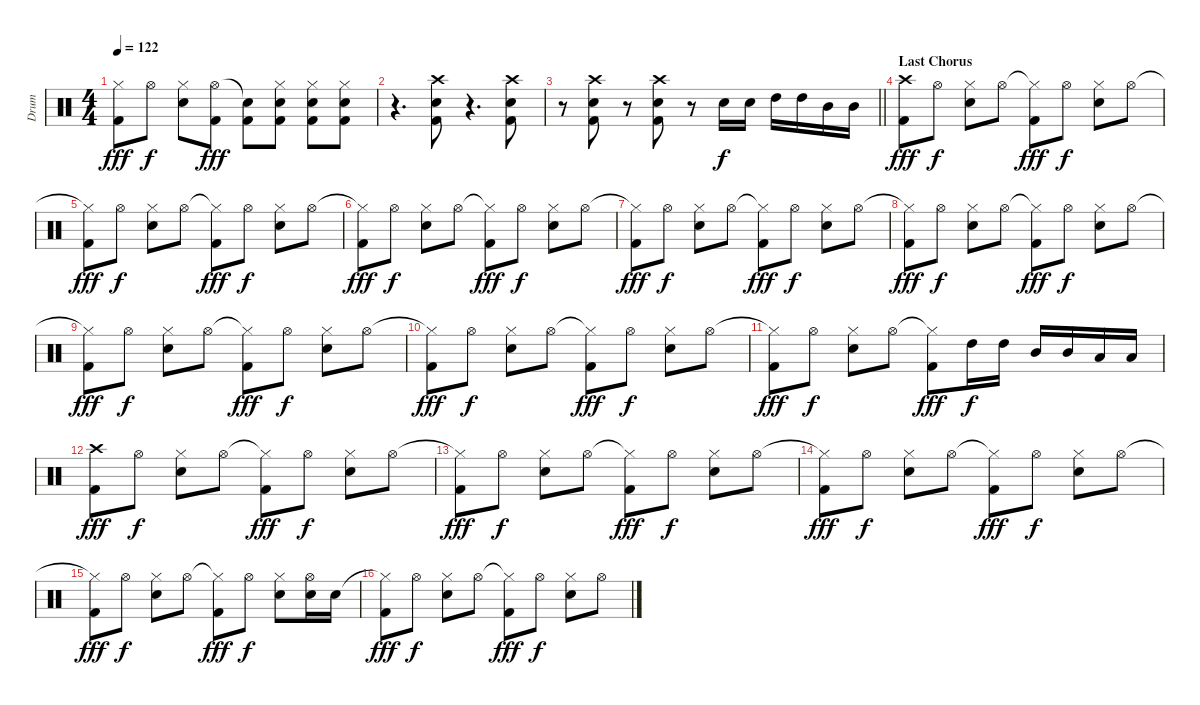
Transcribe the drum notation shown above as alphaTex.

\track ("Drum" "Drum") {instrument percussion}
\staff {score}
\articulation defaults
\ts (4 4)
\tempo 122
\clef neutral
\ks c
("Hi-Hat (closed)"{t} "Kick (hit) 2").8{dy fff} "Hi-Hat (open)".8{dy f} ("Hi-Hat (closed)" "Electric Snare (hit)").8 ("Hi-Hat (open)" "Kick (hit) 2").8{dy fff} ("Snare (hit)"{t} "Kick (hit) 2").8 ("Hi-Hat (closed)" "Electric Snare (hit)" "Kick (hit) 2").8 ("Hi-Hat (closed)" "Electric Snare (hit)" "Kick (hit) 2").8 ("Hi-Hat (closed)" "Electric Snare (hit)" "Kick (hit) 2").8 |
r.4{d} ("Crash high (hit)" "Electric Snare (hit)" "Kick (hit) 2").8 r.4{d} ("Crash high (hit)" "Electric Snare (hit)" "Kick (hit) 2").8 |
\barLineRight lightlight
r.8 ("Crash high (hit)" "Electric Snare (hit)" "Kick (hit) 2").8 r.8 ("Crash high (hit)" "Electric Snare (hit)" "Kick (hit) 2").8 r.8 "Electric Snare (hit)".16{dy f} "Electric Snare (hit)".16 "High Tom (hit)".16 "High Tom (hit)".16 "Mid Tom (hit)".16 "Mid Tom (hit)".16 |
\section ("" "Last Chorus")
("Crash high (hit)" "Kick (hit) 2").8{dy fff} "Hi-Hat (open)".8{dy f} ("Hi-Hat (closed)" "Electric Snare (hit)").8 "Hi-Hat (open)".8 ("Hi-Hat (closed)"{t} "Kick (hit) 2").8{dy fff} "Hi-Hat (open)".8{dy f} ("Hi-Hat (closed)" "Electric Snare (hit)").8 "Hi-Hat (open)".8 |
("Hi-Hat (closed)"{t} "Kick (hit) 2").8{dy fff} "Hi-Hat (open)".8{dy f} ("Hi-Hat (closed)" "Electric Snare (hit)").8 "Hi-Hat (open)".8 ("Hi-Hat (closed)"{t} "Kick (hit) 2").8{dy fff} "Hi-Hat (open)".8{dy f} ("Hi-Hat (closed)" "Electric Snare (hit)").8 "Hi-Hat (open)".8 |
("Hi-Hat (closed)"{t} "Kick (hit) 2").8{dy fff} "Hi-Hat (open)".8{dy f} ("Hi-Hat (closed)" "Electric Snare (hit)").8 "Hi-Hat (open)".8 ("Hi-Hat (closed)"{t} "Kick (hit) 2").8{dy fff} "Hi-Hat (open)".8{dy f} ("Hi-Hat (closed)" "Electric Snare (hit)").8 "Hi-Hat (open)".8 |
("Hi-Hat (closed)"{t} "Kick (hit) 2").8{dy fff} "Hi-Hat (open)".8{dy f} ("Hi-Hat (closed)" "Electric Snare (hit)").8 "Hi-Hat (open)".8 ("Hi-Hat (closed)"{t} "Kick (hit) 2").8{dy fff} "Hi-Hat (open)".8{dy f} ("Hi-Hat (closed)" "Electric Snare (hit)").8 "Hi-Hat (open)".8 |
("Hi-Hat (closed)"{t} "Kick (hit) 2").8{dy fff} "Hi-Hat (open)".8{dy f} ("Hi-Hat (closed)" "Electric Snare (hit)").8 "Hi-Hat (open)".8 ("Hi-Hat (closed)"{t} "Kick (hit) 2").8{dy fff} "Hi-Hat (open)".8{dy f} ("Hi-Hat (closed)" "Electric Snare (hit)").8 "Hi-Hat (open)".8 |
("Hi-Hat (closed)"{t} "Kick (hit) 2").8{dy fff} "Hi-Hat (open)".8{dy f} ("Hi-Hat (closed)" "Electric Snare (hit)").8 "Hi-Hat (open)".8 ("Hi-Hat (closed)"{t} "Kick (hit) 2").8{dy fff} "Hi-Hat (open)".8{dy f} ("Hi-Hat (closed)" "Electric Snare (hit)").8 "Hi-Hat (open)".8 |
("Hi-Hat (closed)"{t} "Kick (hit) 2").8{dy fff} "Hi-Hat (open)".8{dy f} ("Hi-Hat (closed)" "Electric Snare (hit)").8 "Hi-Hat (open)".8 ("Hi-Hat (closed)"{t} "Kick (hit) 2").8{dy fff} "Hi-Hat (open)".8{dy f} ("Hi-Hat (closed)" "Electric Snare (hit)").8 "Hi-Hat (open)".8 |
("Hi-Hat (closed)"{t} "Kick (hit) 2").8{dy fff} "Hi-Hat (open)".8{dy f} ("Hi-Hat (closed)" "Electric Snare (hit)").8 "Hi-Hat (open)".8 ("Hi-Hat (closed)"{t} "Kick (hit) 2").8{dy fff} "High Tom (hit)".16{dy f} "High Tom (hit)".16 "Mid Tom (hit)".16 "Mid Tom (hit)".16 "Low Tom (hit)".16 "Low Tom (hit)".16 |
("Crash high (hit)" "Kick (hit) 2").8{dy fff} "Hi-Hat (open)".8{dy f} ("Hi-Hat (closed)" "Electric Snare (hit)").8 "Hi-Hat (open)".8 ("Hi-Hat (closed)"{t} "Kick (hit) 2").8{dy fff} "Hi-Hat (open)".8{dy f} ("Hi-Hat (closed)" "Electric Snare (hit)").8 "Hi-Hat (open)".8 |
("Hi-Hat (closed)"{t} "Kick (hit) 2").8{dy fff} "Hi-Hat (open)".8{dy f} ("Hi-Hat (closed)" "Electric Snare (hit)").8 "Hi-Hat (open)".8 ("Hi-Hat (closed)"{t} "Kick (hit) 2").8{dy fff} "Hi-Hat (open)".8{dy f} ("Hi-Hat (closed)" "Electric Snare (hit)").8 "Hi-Hat (open)".8 |
("Hi-Hat (closed)"{t} "Kick (hit) 2").8{dy fff} "Hi-Hat (open)".8{dy f} ("Hi-Hat (closed)" "Electric Snare (hit)").8 "Hi-Hat (open)".8 ("Hi-Hat (closed)"{t} "Kick (hit) 2").8{dy fff} "Hi-Hat (open)".8{dy f} ("Hi-Hat (closed)" "Electric Snare (hit)").8 "Hi-Hat (open)".8 |
("Hi-Hat (closed)"{t} "Kick (hit) 2").8{dy fff} "Hi-Hat (open)".8{dy f} ("Hi-Hat (closed)" "Electric Snare (hit)").8 "Hi-Hat (open)".8 ("Hi-Hat (closed)"{t} "Kick (hit) 2").8{dy fff} "Hi-Hat (open)".8{dy f} ("Hi-Hat (closed)" "Electric Snare (hit)").8 ("Hi-Hat (open)" "Electric Snare (hit)").16 "Electric Snare (hit)".16 |
("Hi-Hat (closed)"{t} "Kick (hit) 2").8{dy fff} "Hi-Hat (open)".8{dy f} ("Hi-Hat (closed)" "Electric Snare (hit)").8 "Hi-Hat (open)".8 ("Hi-Hat (closed)"{t} "Kick (hit) 2").8{dy fff} "Hi-Hat (open)".8{dy f} ("Hi-Hat (closed)" "Electric Snare (hit)").8 "Hi-Hat (open)".8
